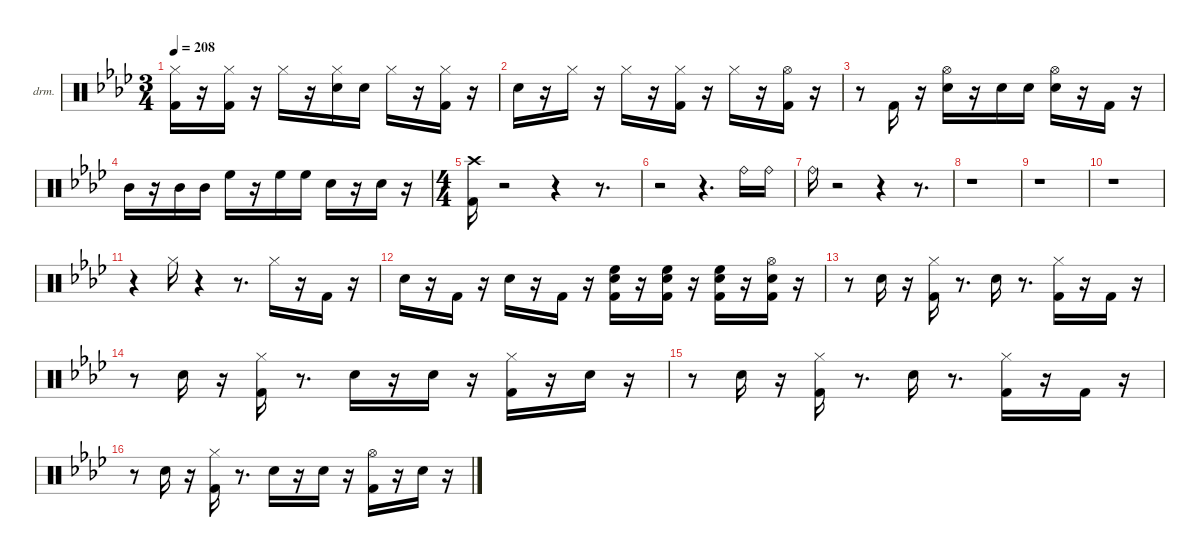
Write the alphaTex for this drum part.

\hideDynamics
\bracketExtendMode nobrackets
\firstSystemTrackNameOrientation horizontal
\otherSystemsTrackNameOrientation horizontal
\track ("EZdrummer 3" "drm.") {instrument percussion}
\staff {score}
\articulation defaults
\ts (3 4)
\tempo 208
\clef neutral
\ks fminor
("Kick (hit) 2"{acc forcenatural} "Hi-Hat (closed)"{acc b}).16{dy fff beam Down} r.16{beam Down} ("Kick (hit) 2"{acc forcenatural} "Hi-Hat (closed)"{acc b}).16{dy mf beam Down} r.16{beam Down} "Hi-Hat (closed)"{acc b}.16{dy pp beam Down} r.16{beam Down} ("Snare (hit) 2"{acc forcenatural} "Hi-Hat (closed)"{acc b}).16{dy mf beam Down} "Snare (hit) 2"{acc forcenatural}.16{dy ppp beam Down} "Hi-Hat (closed)"{acc b}.16{dy mf beam Down} r.16{beam Down} ("Kick (hit) 2"{acc forcenatural} "Hi-Hat (closed)"{acc b}).16{dy ff beam Down} r.16{beam Down} |
"Snare (hit) 2"{acc forcenatural}.16{dy fff beam Down} r.16{beam Down} "Hi-Hat (closed)"{acc b}.16{dy mf beam Down} r.16{beam Down} "Hi-Hat (closed)"{acc b}.16{dy fff beam Down} r.16{beam Down} ("Kick (hit) 2"{acc forcenatural} "Hi-Hat (closed)"{acc b}).16{dy ff beam Down} r.16{beam Down} "Hi-Hat (closed)"{acc b}.16{dy fff beam Down} r.16{beam Down} ("Kick (hit) 2"{acc forcenatural} "Hi-Hat (open)"{acc b}).16{dy f beam Down} r.16{beam Down} |
r.8{beam Down} "Kick (hit) 2"{acc forcenatural}.16{dy mf beam Up} r.16{beam Up} ("Snare (hit) 2"{acc forcenatural} "Hi-Hat (open)"{acc b}).16{dy ff beam Down} r.16{beam Down} "Snare (hit) 2"{acc forcenatural}.16{dy pp beam Down} "Snare (hit) 2"{acc forcenatural}.16{dy ppp beam Down} ("Snare (hit) 2"{acc forcenatural} "Hi-Hat (open)"{acc b}).16{dy fff beam Down} r.16{beam Down} "Kick (hit) 2"{acc forcenatural}.16{dy ff beam Up} r.16{beam Up} |
"Mid Tom (hit)"{acc forcenatural}.16{beam Down} r.16{beam Down} "Mid Tom (hit)"{acc forcenatural}.16{beam Up} "Mid Tom (hit)"{acc forcenatural}.16{beam Up} "High Floor Tom (hit)"{acc forcenatural}.16{beam Down} r.16{beam Down} "High Floor Tom (hit)"{acc forcenatural}.16{beam Down} "High Floor Tom (hit)"{acc forcenatural}.16{beam Down} "Snare (hit) 2"{acc forcenatural}.16{dy f beam Down} r.16{beam Down} "Snare (hit) 2"{acc forcenatural}.16{dy mp beam Down} r.16{beam Down} |
\ts (4 4)
("Kick (hit) 2"{acc forcenatural} "Crash high (hit)"{acc b}).16{dy ff beam Down} r.2{beam Down} r.4{beam Down} r.8{d beam Down} |
r.2{beam Down} r.4{d beam Down} "Ride (bell)"{acc forcenatural}.16{beam Down} "Ride (bell)"{acc forcenatural}.16{dy f beam Down} |
"Ride (bell)"{acc forcenatural}.16{dy fff beam Down} r.2{beam Down} r.4{beam Down} r.8{d beam Down} |
r.1{beam Down} |
r.1{beam Down} |
r.1{beam Down} |
r.4{beam Down} "Hi-Hat (closed)"{acc b}.16{dy ff beam Down} r.4{beam Down} r.8{d beam Down} "Hi-Hat (closed)"{acc b}.16{dy f beam Down} r.16{beam Down} "Kick (hit) 2"{acc forcenatural}.16{beam Up} r.16{beam Up} |
"Snare (hit) 2"{acc forcenatural}.16{dy ff beam Down} r.16{beam Down} "Kick (hit) 2"{acc forcenatural}.16{beam Up} r.16{beam Up} "Snare (hit) 2"{acc forcenatural}.16{dy f beam Down} r.16{beam Down} "Kick (hit) 2"{acc forcenatural}.16{dy mf beam Up} r.16{beam Up} ("Kick (hit) 2"{acc forcenatural} "Snare (hit) 2"{acc forcenatural} "High Floor Tom (hit)"{acc forcenatural}).16{dy ff beam Down} r.16{beam Down} ("Kick (hit) 2"{acc forcenatural} "Snare (hit) 2"{acc forcenatural} "High Floor Tom (hit)"{acc forcenatural}).16{dy mf beam Down} r.16{beam Down} ("Kick (hit) 2"{acc forcenatural} "Snare (hit) 2"{acc forcenatural} "High Floor Tom (hit)"{acc forcenatural}).16{beam Down} r.16{beam Down} ("Kick (hit) 2"{acc forcenatural} "Snare (hit) 2"{acc forcenatural} "Hi-Hat (open)"{acc b}).16{dy ff beam Down} r.16{beam Down} |
r.8{beam Down} "Snare (hit) 2"{acc forcenatural}.16{beam Down} r.16{beam Down} ("Kick (hit) 2"{acc forcenatural} "Hi-Hat (closed)"{acc b}).16{beam Down} r.8{d beam Down} "Snare (hit) 2"{acc forcenatural}.16{dy f beam Down} r.8{d beam Down} ("Kick (hit) 2"{acc forcenatural} "Hi-Hat (closed)"{acc b}).16{dy mf beam Down} r.16{beam Down} "Kick (hit) 2"{acc forcenatural}.16{dy ff beam Up} r.16{beam Up} |
r.8{beam Down} "Snare (hit) 2"{acc forcenatural}.16{beam Down} r.16{beam Down} ("Kick (hit) 2"{acc forcenatural} "Hi-Hat (closed)"{acc b}).16{beam Down} r.8{d beam Down} "Snare (hit) 2"{acc forcenatural}.16{dy f beam Down} r.16{beam Down} "Snare (hit) 2"{acc forcenatural}.16{dy mp beam Down} r.16{beam Down} ("Kick (hit) 2"{acc forcenatural} "Hi-Hat (closed)"{acc b}).16{dy ff beam Down} r.16{beam Down} "Snare (hit) 2"{acc forcenatural}.16{beam Down} r.16{beam Down} |
r.8{beam Down} "Snare (hit) 2"{acc forcenatural}.16{beam Down} r.16{beam Down} ("Kick (hit) 2"{acc forcenatural} "Hi-Hat (closed)"{acc b}).16{beam Down} r.8{d beam Down} "Snare (hit) 2"{acc forcenatural}.16{dy f beam Down} r.8{d beam Down} ("Kick (hit) 2"{acc forcenatural} "Hi-Hat (closed)"{acc b}).16{dy mf beam Down} r.16{beam Down} "Kick (hit) 2"{acc forcenatural}.16{dy ff beam Up} r.16{beam Up} |
r.8{beam Down} "Snare (hit) 2"{acc forcenatural}.16{beam Down} r.16{beam Down} ("Kick (hit) 2"{acc forcenatural} "Hi-Hat (closed)"{acc b}).16{beam Down} r.8{d beam Down} "Snare (hit) 2"{acc forcenatural}.16{dy f beam Down} r.16{beam Down} "Snare (hit) 2"{acc forcenatural}.16{dy mp beam Down} r.16{beam Down} ("Kick (hit) 2"{acc forcenatural} "Hi-Hat (open)"{acc b}).16{dy ff beam Down} r.16{beam Down} "Snare (hit) 2"{acc forcenatural}.16{beam Down} r.16{beam Down}
